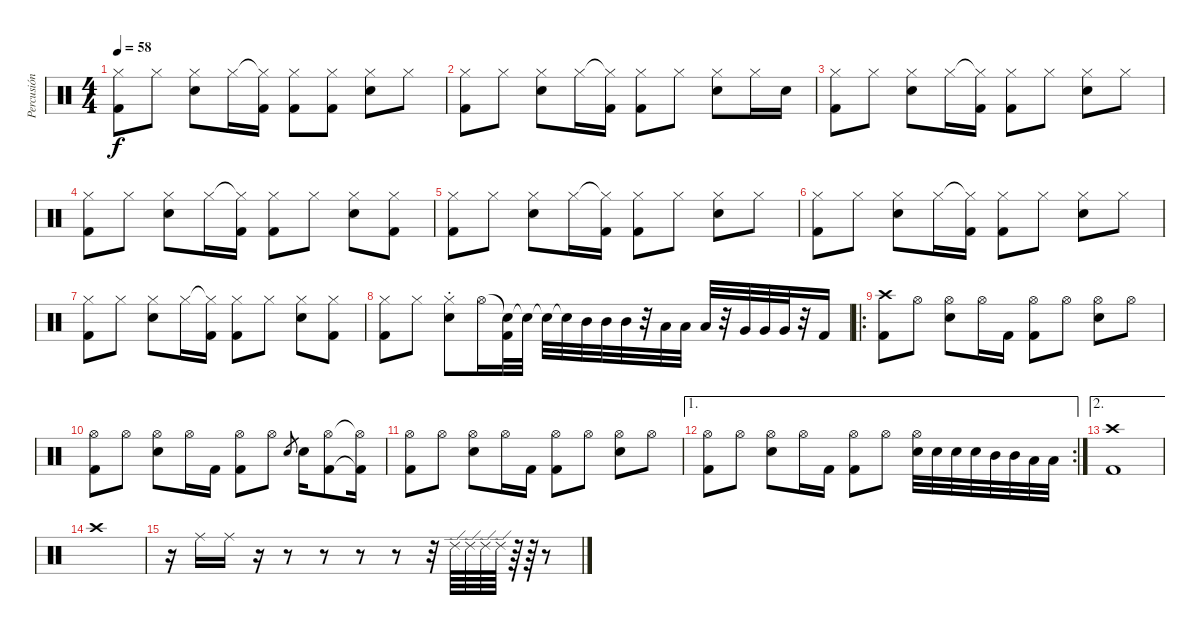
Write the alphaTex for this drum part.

\track ("Percusión" "Percusión") {instrument percussion}
\staff {score}
\articulation defaults
\ts (4 4)
\tempo 58
\clef neutral
\ks c
("Hi-Hat (closed)" "Kick (hit) 2").8{dy f} "Hi-Hat (closed)".8 ("Hi-Hat (closed)" "Electric Snare (hit)").8 "Hi-Hat (closed)".16 ("Hi-Hat (closed)"{t} "Kick (hit) 2").16 ("Hi-Hat (closed)" "Kick (hit) 2").8 ("Hi-Hat (closed)" "Kick (hit) 2").8 ("Hi-Hat (closed)" "Electric Snare (hit)").8 "Hi-Hat (closed)".8 |
("Hi-Hat (closed)" "Kick (hit) 2").8 "Hi-Hat (closed)".8 ("Hi-Hat (closed)" "Electric Snare (hit)").8 "Hi-Hat (closed)".16 ("Hi-Hat (closed)"{t} "Kick (hit) 2").16 ("Hi-Hat (closed)" "Kick (hit) 2").8 "Hi-Hat (closed)".8 ("Hi-Hat (closed)" "Electric Snare (hit)").8 "Hi-Hat (closed)".16 "Electric Snare (hit)".16 |
("Hi-Hat (closed)" "Kick (hit) 2").8 "Hi-Hat (closed)".8 ("Hi-Hat (closed)" "Electric Snare (hit)").8 "Hi-Hat (closed)".16 ("Hi-Hat (closed)"{t} "Kick (hit) 2").16 ("Hi-Hat (closed)" "Kick (hit) 2").8 "Hi-Hat (closed)".8 ("Hi-Hat (closed)" "Electric Snare (hit)").8 "Hi-Hat (closed)".8 |
("Hi-Hat (closed)" "Kick (hit) 2").8 "Hi-Hat (closed)".8 ("Hi-Hat (closed)" "Electric Snare (hit)").8 "Hi-Hat (closed)".16 ("Hi-Hat (closed)"{t} "Kick (hit) 2").16 ("Hi-Hat (closed)" "Kick (hit) 2").8 "Hi-Hat (closed)".8 ("Hi-Hat (closed)" "Electric Snare (hit)").8 ("Hi-Hat (closed)" "Kick (hit) 2").8 |
("Hi-Hat (closed)" "Kick (hit) 2").8 "Hi-Hat (closed)".8 ("Hi-Hat (closed)" "Electric Snare (hit)").8 "Hi-Hat (closed)".16 ("Hi-Hat (closed)"{t} "Kick (hit) 2").16 ("Hi-Hat (closed)" "Kick (hit) 2").8 "Hi-Hat (closed)".8 ("Hi-Hat (closed)" "Electric Snare (hit)").8 "Hi-Hat (closed)".8 |
("Hi-Hat (closed)" "Kick (hit) 2").8 "Hi-Hat (closed)".8 ("Hi-Hat (closed)" "Electric Snare (hit)").8 "Hi-Hat (closed)".16 ("Hi-Hat (closed)"{t} "Kick (hit) 2").16 ("Hi-Hat (closed)" "Kick (hit) 2").8 "Hi-Hat (closed)".8 ("Hi-Hat (closed)" "Electric Snare (hit)").8 "Hi-Hat (closed)".8 |
("Hi-Hat (closed)" "Kick (hit) 2").8 "Hi-Hat (closed)".8 ("Hi-Hat (closed)" "Electric Snare (hit)").8 "Hi-Hat (closed)".16 ("Hi-Hat (closed)"{t} "Kick (hit) 2").16 ("Hi-Hat (closed)" "Kick (hit) 2").8 "Hi-Hat (closed)".8 ("Hi-Hat (closed)" "Electric Snare (hit)").8 ("Hi-Hat (closed)" "Kick (hit) 2").8 |
("Hi-Hat (closed)" "Kick (hit) 2").8 "Hi-Hat (closed)".8 ("Hi-Hat (closed)" "Electric Snare (hit)"{st}).8 "Hi-Hat (open)".16 ("Snare (hit)"{t} "Kick (hit) 2").32 "Snare (hit)"{t}.32 "Snare (hit)"{t}.32 "Snare (hit)"{t}.32 "Mid Tom (hit)".32 "Mid Tom (hit)".32 "Mid Tom (hit)".32 r.32 "Low Tom (hit)".32 "Low Tom (hit)".32 "Low Tom (hit)".32 r.32 "Very Low Tom (hit)".32 "Very Low Tom (hit)".32 "Very Low Tom (hit)".32 r.32 "Kick (hit) 2".16 |
\ro
("Crash high (hit)" "Kick (hit) 2").8 "Hi-Hat (open)".8 ("Hi-Hat (open)" "Electric Snare (hit)").8 "Hi-Hat (open)".16 "Kick (hit) 2".16 ("Hi-Hat (open)" "Kick (hit) 2").8 "Hi-Hat (open)".8 ("Hi-Hat (open)" "Electric Snare (hit)").8 "Hi-Hat (open)".8 |
("Hi-Hat (open)" "Kick (hit) 2").8 "Hi-Hat (open)".8 ("Hi-Hat (open)" "Electric Snare (hit)").8 "Hi-Hat (open)".16 "Kick (hit) 2".16 ("Hi-Hat (open)" "Kick (hit) 2").8 "Hi-Hat (open)".8 "Electric Snare (hit)".8{gr} "Electric Snare (hit)".16 ("Hi-Hat (open)" "Kick (hit) 2").8 ("Hi-Hat (open)"{t} "Kick (hit) 2"{t}).16 |
("Hi-Hat (open)" "Kick (hit) 2").8 "Hi-Hat (open)".8 ("Hi-Hat (open)" "Electric Snare (hit)").8 "Hi-Hat (open)".16 "Kick (hit) 2".16 ("Hi-Hat (open)" "Kick (hit) 2").8 "Hi-Hat (open)".8 ("Hi-Hat (open)" "Electric Snare (hit)").8 "Hi-Hat (open)".8 |
\ae 1
\rc 2
("Hi-Hat (open)" "Kick (hit) 2").8 "Hi-Hat (open)".8 ("Hi-Hat (open)" "Electric Snare (hit)").8 "Hi-Hat (open)".16 "Kick (hit) 2".16 ("Hi-Hat (open)" "Kick (hit) 2").8 "Hi-Hat (open)".8 ("Hi-Hat (open)" "Electric Snare (hit)").32 "Electric Snare (hit)".32 "Electric Snare (hit)".32 "Electric Snare (hit)".32 "Mid Tom (hit)".32 "Mid Tom (hit)".32 "Low Tom (hit)".32 "Low Tom (hit)".32 |
\ae 2
("Crash high (hit)" "Kick (hit) 2").1 |
"Crash high (hit)".1 |
r.16 "Ride (middle)".16 "Ride (middle)".16 r.16 r.8 r.8 r.8 r.8 r.32 "Ride (edge) 2".64 "Ride (edge) 2".64 "Ride (edge) 2".64 "Ride (edge) 2".64 r.64 r.64 r.8
